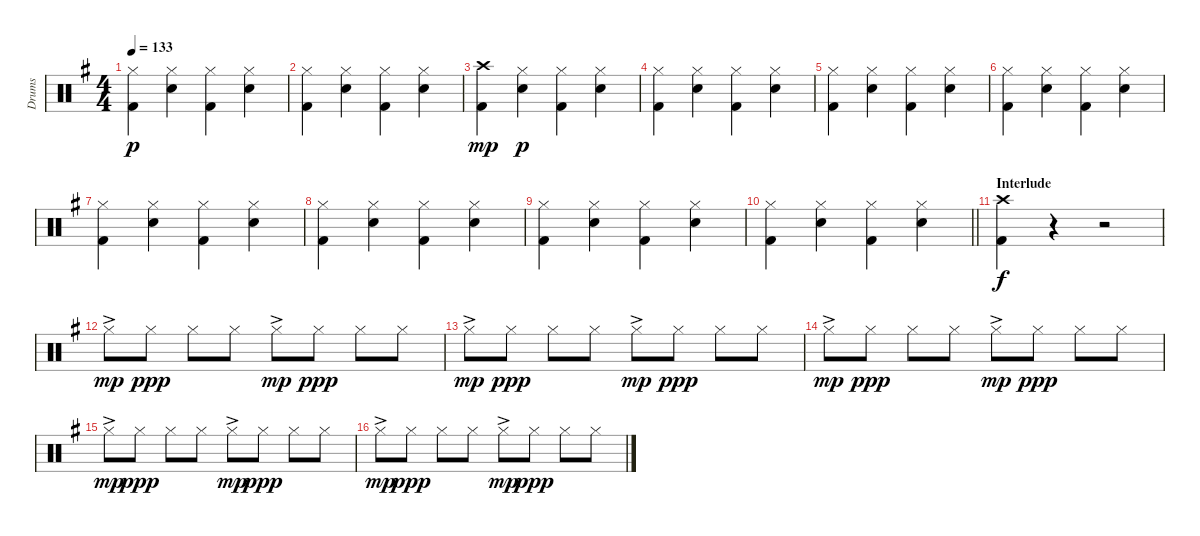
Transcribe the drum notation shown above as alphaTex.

\track ("Drums" "Drums") {instrument percussion}
\staff {score}
\articulation defaults
\ts (4 4)
\tempo 133
\clef neutral
\ks g
("Hi-Hat (closed)" "Kick (hit) 2").4{dy p} ("Hi-Hat (closed)" "Electric Snare (hit)").4 ("Hi-Hat (closed)" "Kick (hit) 2").4 ("Hi-Hat (closed)" "Electric Snare (hit)").4 |
("Hi-Hat (closed)" "Kick (hit) 2").4 ("Hi-Hat (closed)" "Electric Snare (hit)").4 ("Hi-Hat (closed)" "Kick (hit) 2").4 ("Hi-Hat (closed)" "Electric Snare (hit)").4 |
("Crash high (hit)" "Kick (hit) 2").4{dy mp} ("Hi-Hat (closed)" "Electric Snare (hit)").4{dy p} ("Hi-Hat (closed)" "Kick (hit) 2").4 ("Hi-Hat (closed)" "Electric Snare (hit)").4 |
("Hi-Hat (closed)" "Kick (hit) 2").4 ("Hi-Hat (closed)" "Electric Snare (hit)").4 ("Hi-Hat (closed)" "Kick (hit) 2").4 ("Hi-Hat (closed)" "Electric Snare (hit)").4 |
("Hi-Hat (closed)" "Kick (hit) 2").4 ("Hi-Hat (closed)" "Electric Snare (hit)").4 ("Hi-Hat (closed)" "Kick (hit) 2").4 ("Hi-Hat (closed)" "Electric Snare (hit)").4 |
("Hi-Hat (closed)" "Kick (hit) 2").4 ("Hi-Hat (closed)" "Electric Snare (hit)").4 ("Hi-Hat (closed)" "Kick (hit) 2").4 ("Hi-Hat (closed)" "Electric Snare (hit)").4 |
("Hi-Hat (closed)" "Kick (hit) 2").4 ("Hi-Hat (closed)" "Electric Snare (hit)").4 ("Hi-Hat (closed)" "Kick (hit) 2").4 ("Hi-Hat (closed)" "Electric Snare (hit)").4 |
("Hi-Hat (closed)" "Kick (hit) 2").4 ("Hi-Hat (closed)" "Electric Snare (hit)").4 ("Hi-Hat (closed)" "Kick (hit) 2").4 ("Hi-Hat (closed)" "Electric Snare (hit)").4 |
("Hi-Hat (closed)" "Kick (hit) 2").4 ("Hi-Hat (closed)" "Electric Snare (hit)").4 ("Hi-Hat (closed)" "Kick (hit) 2").4 ("Hi-Hat (closed)" "Electric Snare (hit)").4 |
\barLineRight lightlight
("Hi-Hat (closed)" "Kick (hit) 2").4 ("Hi-Hat (closed)" "Electric Snare (hit)").4 ("Hi-Hat (closed)" "Kick (hit) 2").4 ("Hi-Hat (closed)" "Electric Snare (hit)").4 |
\section ("" "Interlude")
("Kick (hit) 2" "Crash high (hit)").4{dy f volume 0} r.4 r.2 |
"Hi-Hat (closed)"{ac}.8{dy mp volume 1} "Hi-Hat (closed)".8{dy ppp} "Hi-Hat (closed)".8 "Hi-Hat (closed)".8 "Hi-Hat (closed)"{ac}.8{dy mp} "Hi-Hat (closed)".8{dy ppp} "Hi-Hat (closed)".8 "Hi-Hat (closed)".8 |
"Hi-Hat (closed)"{ac}.8{dy mp} "Hi-Hat (closed)".8{dy ppp} "Hi-Hat (closed)".8 "Hi-Hat (closed)".8 "Hi-Hat (closed)"{ac}.8{dy mp} "Hi-Hat (closed)".8{dy ppp} "Hi-Hat (closed)".8 "Hi-Hat (closed)".8 |
"Hi-Hat (closed)"{ac}.8{dy mp} "Hi-Hat (closed)".8{dy ppp} "Hi-Hat (closed)".8 "Hi-Hat (closed)".8 "Hi-Hat (closed)"{ac}.8{dy mp} "Hi-Hat (closed)".8{dy ppp} "Hi-Hat (closed)".8 "Hi-Hat (closed)".8 |
"Hi-Hat (closed)"{ac}.8{dy mp} "Hi-Hat (closed)".8{dy ppp} "Hi-Hat (closed)".8 "Hi-Hat (closed)".8 "Hi-Hat (closed)"{ac}.8{dy mp} "Hi-Hat (closed)".8{dy ppp} "Hi-Hat (closed)".8 "Hi-Hat (closed)".8 |
"Hi-Hat (closed)"{ac}.8{dy mp} "Hi-Hat (closed)".8{dy ppp} "Hi-Hat (closed)".8 "Hi-Hat (closed)".8 "Hi-Hat (closed)"{ac}.8{dy mp} "Hi-Hat (closed)".8{dy ppp} "Hi-Hat (closed)".8 "Hi-Hat (closed)".8
